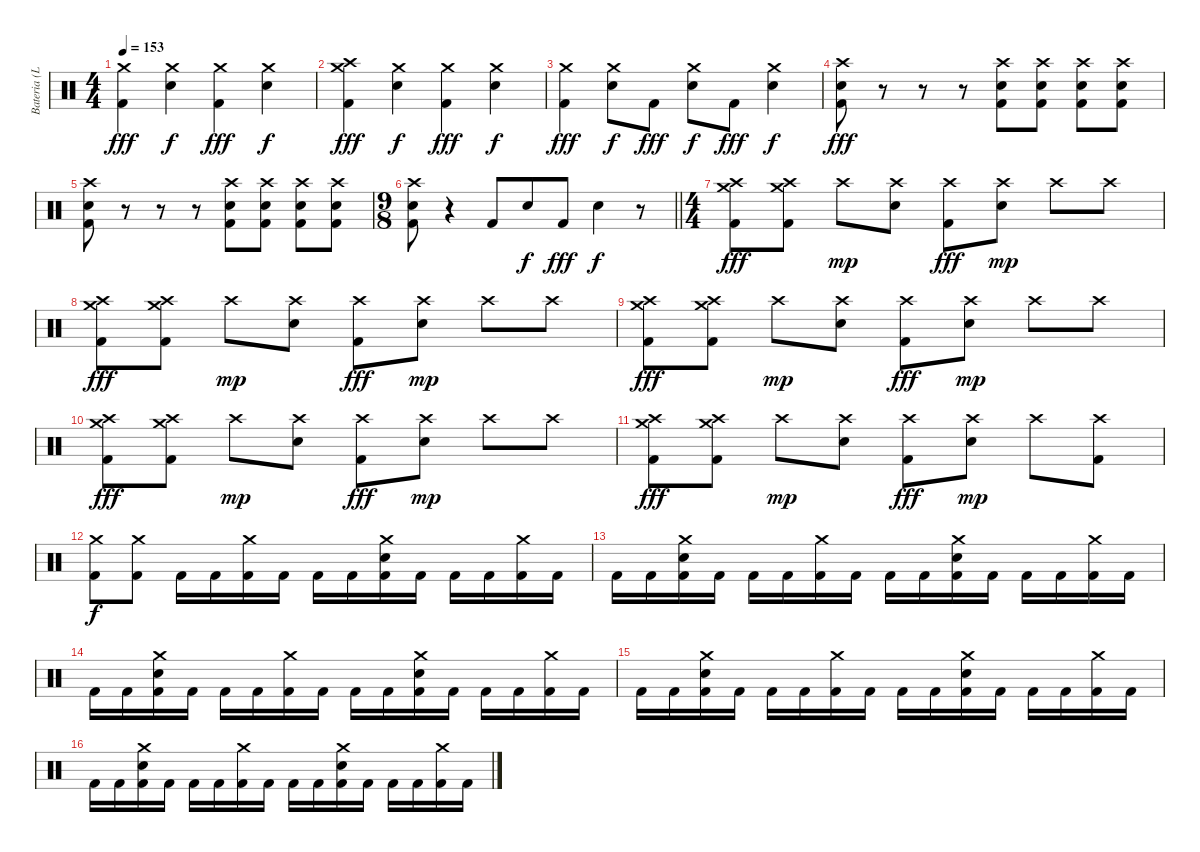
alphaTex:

\track ("Bateria (Lars)" "Bateria (L") {instrument percussion}
\staff {score}
\articulation defaults
\ts (4 4)
\tempo 153
\clef neutral
\ks c
("Crash medium (hit)" "Kick (hit) 2").4{dy fff} ("Crash medium (hit)" "Electric Snare (hit)").4{dy f} ("Crash medium (hit)" "Kick (hit) 2").4{dy fff} ("Crash medium (hit)" "Electric Snare (hit)").4{dy f} |
("Crash medium (hit)" "Crash high (hit)" "Kick (hit) 2").4{dy fff} ("Crash medium (hit)" "Electric Snare (hit)").4{dy f} ("Crash medium (hit)" "Kick (hit) 2").4{dy fff} ("Crash medium (hit)" "Electric Snare (hit)").4{dy f} |
("Crash medium (hit)" "Kick (hit) 2").4{dy fff} ("Crash medium (hit)" "Electric Snare (hit)").8{dy f} "Kick (hit) 2".8{dy fff} ("Crash medium (hit)" "Electric Snare (hit)").8{dy f} "Kick (hit) 2".8{dy fff} ("Crash medium (hit)" "Electric Snare (hit)").4{dy f} |
("Crash high (hit)" "Electric Snare (hit)" "Kick (hit) 2").8{dy fff} r.8 r.8 r.8 ("Crash high (hit)" "Electric Snare (hit)" "Kick (hit) 2").8 ("Crash high (hit)" "Electric Snare (hit)" "Kick (hit) 2").8 ("Crash high (hit)" "Electric Snare (hit)" "Kick (hit) 2").8 ("Crash high (hit)" "Electric Snare (hit)" "Kick (hit) 2").8 |
("Crash high (hit)" "Electric Snare (hit)" "Kick (hit) 2").8 r.8 r.8 r.8 ("Crash high (hit)" "Electric Snare (hit)" "Kick (hit) 2").8 ("Crash high (hit)" "Electric Snare (hit)" "Kick (hit) 2").8 ("Crash high (hit)" "Electric Snare (hit)" "Kick (hit) 2").8 ("Crash high (hit)" "Electric Snare (hit)" "Kick (hit) 2").8 |
\ts (9 8)
\barLineRight lightlight
("Crash high (hit)" "Electric Snare (hit)" "Kick (hit) 2").8 r.4 "Kick (hit) 2".8 "Electric Snare (hit)".8{dy f} "Kick (hit) 2".8{dy fff} "Electric Snare (hit)".4{dy f} r.8 |
\ts (4 4)
("Crash high (hit)" "Crash medium (hit)" "Kick (hit) 2").8{dy fff} ("Crash high (hit)" "Crash medium (hit)" "Kick (hit) 2").8 "Crash high (hit)".8{dy mp} ("Crash high (hit)" "Electric Snare (hit)").8 ("Crash high (hit)" "Kick (hit) 2").8{dy fff} ("Crash high (hit)" "Electric Snare (hit)").8{dy mp} "Crash high (hit)".8 "Crash high (hit)".8 |
("Crash high (hit)" "Crash medium (hit)" "Kick (hit) 2").8{dy fff} ("Crash high (hit)" "Crash medium (hit)" "Kick (hit) 2").8 "Crash high (hit)".8{dy mp} ("Crash high (hit)" "Electric Snare (hit)").8 ("Crash high (hit)" "Kick (hit) 2").8{dy fff} ("Crash high (hit)" "Electric Snare (hit)").8{dy mp} "Crash high (hit)".8 "Crash high (hit)".8 |
("Crash high (hit)" "Crash medium (hit)" "Kick (hit) 2").8{dy fff} ("Crash high (hit)" "Crash medium (hit)" "Kick (hit) 2").8 "Crash high (hit)".8{dy mp} ("Crash high (hit)" "Electric Snare (hit)").8 ("Crash high (hit)" "Kick (hit) 2").8{dy fff} ("Crash high (hit)" "Electric Snare (hit)").8{dy mp} "Crash high (hit)".8 "Crash high (hit)".8 |
("Crash high (hit)" "Crash medium (hit)" "Kick (hit) 2").8{dy fff} ("Crash high (hit)" "Crash medium (hit)" "Kick (hit) 2").8 "Crash high (hit)".8{dy mp} ("Crash high (hit)" "Electric Snare (hit)").8 ("Crash high (hit)" "Kick (hit) 2").8{dy fff} ("Crash high (hit)" "Electric Snare (hit)").8{dy mp} "Crash high (hit)".8 "Crash high (hit)".8 |
("Crash high (hit)" "Crash medium (hit)" "Kick (hit) 2").8{dy fff} ("Crash high (hit)" "Crash medium (hit)" "Kick (hit) 2").8 "Crash high (hit)".8{dy mp} ("Crash high (hit)" "Electric Snare (hit)").8 ("Crash high (hit)" "Kick (hit) 2").8{dy fff} ("Crash high (hit)" "Electric Snare (hit)").8{dy mp} "Crash high (hit)".8 ("Crash high (hit)" "Kick (hit) 2").8 |
("Crash medium (hit)" "Kick (hit) 2").8{dy f} ("Crash medium (hit)" "Kick (hit) 2").8 "Kick (hit) 2".16 "Kick (hit) 2".16 ("Crash medium (hit)" "Kick (hit) 2").16 "Kick (hit) 2".16 "Kick (hit) 2".16 "Kick (hit) 2".16 ("Crash medium (hit)" "Electric Snare (hit)" "Kick (hit) 2").16 "Kick (hit) 2".16 "Kick (hit) 2".16 "Kick (hit) 2".16 ("Crash medium (hit)" "Kick (hit) 2").16 "Kick (hit) 2".16 |
"Kick (hit) 2".16 "Kick (hit) 2".16 ("Crash medium (hit)" "Electric Snare (hit)" "Kick (hit) 2").16 "Kick (hit) 2".16 "Kick (hit) 2".16 "Kick (hit) 2".16 ("Crash medium (hit)" "Kick (hit) 2").16 "Kick (hit) 2".16 "Kick (hit) 2".16 "Kick (hit) 2".16 ("Crash medium (hit)" "Electric Snare (hit)" "Kick (hit) 2").16 "Kick (hit) 2".16 "Kick (hit) 2".16 "Kick (hit) 2".16 ("Crash medium (hit)" "Kick (hit) 2").16 "Kick (hit) 2".16 |
"Kick (hit) 2".16 "Kick (hit) 2".16 ("Crash medium (hit)" "Electric Snare (hit)" "Kick (hit) 2").16 "Kick (hit) 2".16 "Kick (hit) 2".16 "Kick (hit) 2".16 ("Crash medium (hit)" "Kick (hit) 2").16 "Kick (hit) 2".16 "Kick (hit) 2".16 "Kick (hit) 2".16 ("Crash medium (hit)" "Electric Snare (hit)" "Kick (hit) 2").16 "Kick (hit) 2".16 "Kick (hit) 2".16 "Kick (hit) 2".16 ("Crash medium (hit)" "Kick (hit) 2").16 "Kick (hit) 2".16 |
"Kick (hit) 2".16 "Kick (hit) 2".16 ("Crash medium (hit)" "Electric Snare (hit)" "Kick (hit) 2").16 "Kick (hit) 2".16 "Kick (hit) 2".16 "Kick (hit) 2".16 ("Crash medium (hit)" "Kick (hit) 2").16 "Kick (hit) 2".16 "Kick (hit) 2".16 "Kick (hit) 2".16 ("Crash medium (hit)" "Electric Snare (hit)" "Kick (hit) 2").16 "Kick (hit) 2".16 "Kick (hit) 2".16 "Kick (hit) 2".16 ("Crash medium (hit)" "Kick (hit) 2").16 "Kick (hit) 2".16 |
"Kick (hit) 2".16 "Kick (hit) 2".16 ("Crash medium (hit)" "Electric Snare (hit)" "Kick (hit) 2").16 "Kick (hit) 2".16 "Kick (hit) 2".16 "Kick (hit) 2".16 ("Crash medium (hit)" "Kick (hit) 2").16 "Kick (hit) 2".16 "Kick (hit) 2".16 "Kick (hit) 2".16 ("Crash medium (hit)" "Electric Snare (hit)" "Kick (hit) 2").16 "Kick (hit) 2".16 "Kick (hit) 2".16 "Kick (hit) 2".16 ("Crash medium (hit)" "Kick (hit) 2").16 "Kick (hit) 2".16
